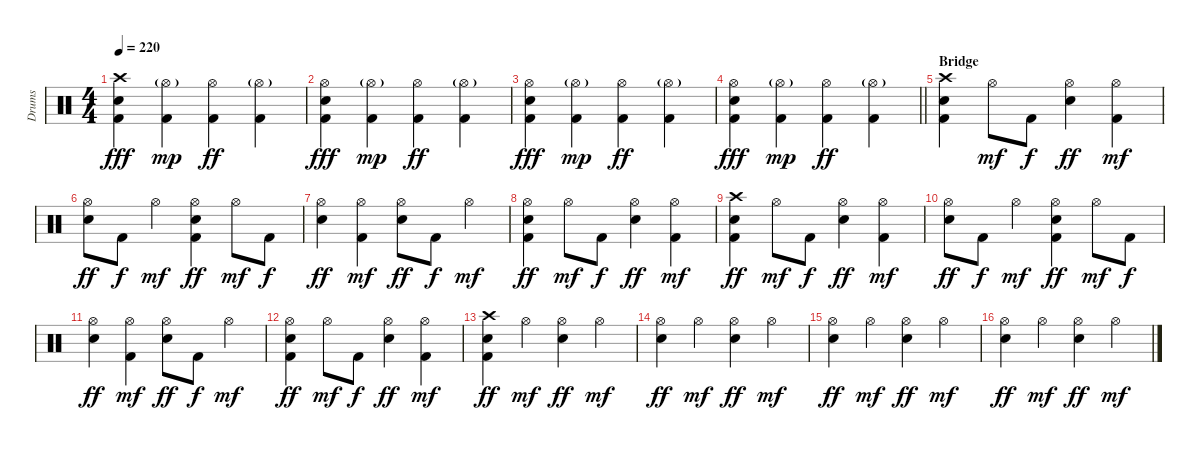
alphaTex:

\track ("Drums" "Drums") {instrument percussion}
\staff {score}
\articulation defaults
\ts (4 4)
\tempo 220
\clef neutral
\ks c
("Crash high (hit)" "Snare (hit) 2" "Kick (hit) 2").4{dy fff} ("Hi-Hat (open)"{g} "Kick (hit) 2").4{dy mp} ("Hi-Hat (open)" "Kick (hit) 2").4{dy ff} ("Hi-Hat (open)"{g} "Kick (hit) 2").4 |
("Hi-Hat (open)" "Snare (hit) 2" "Kick (hit) 2").4{dy fff} ("Hi-Hat (open)"{g} "Kick (hit) 2").4{dy mp} ("Hi-Hat (open)" "Kick (hit) 2").4{dy ff} ("Hi-Hat (open)"{g} "Kick (hit) 2").4 |
("Hi-Hat (open)" "Snare (hit) 2" "Kick (hit) 2").4{dy fff} ("Hi-Hat (open)"{g} "Kick (hit) 2").4{dy mp} ("Hi-Hat (open)" "Kick (hit) 2").4{dy ff} ("Hi-Hat (open)"{g} "Kick (hit) 2").4 |
\barLineRight lightlight
("Hi-Hat (open)" "Snare (hit) 2" "Kick (hit) 2").4{dy fff} ("Hi-Hat (open)"{g} "Kick (hit) 2").4{dy mp} ("Hi-Hat (open)" "Kick (hit) 2").4{dy ff} ("Hi-Hat (open)"{g} "Kick (hit) 2").4 |
\section ("" "Bridge")
("Crash high (hit)" "Snare (hit) 2" "Kick (hit) 2").4 "Hi-Hat (open)".8{dy mf} "Kick (hit) 2".8{dy f} ("Hi-Hat (open)" "Snare (hit) 2").4{dy ff} ("Hi-Hat (open)" "Kick (hit) 2").4{dy mf} |
("Hi-Hat (open)" "Snare (hit) 2").8{dy ff} "Kick (hit) 2".8{dy f} "Hi-Hat (open)".4{dy mf} ("Hi-Hat (open)" "Snare (hit) 2" "Kick (hit) 2").4{dy ff} "Hi-Hat (open)".8{dy mf} "Kick (hit) 2".8{dy f} |
("Hi-Hat (open)" "Snare (hit) 2").4{dy ff} ("Hi-Hat (open)" "Kick (hit) 2").4{dy mf} ("Hi-Hat (open)" "Snare (hit) 2").8{dy ff} "Kick (hit) 2".8{dy f} "Hi-Hat (open)".4{dy mf} |
("Hi-Hat (open)" "Snare (hit) 2" "Kick (hit) 2").4{dy ff} "Hi-Hat (open)".8{dy mf} "Kick (hit) 2".8{dy f} ("Hi-Hat (open)" "Snare (hit) 2").4{dy ff} ("Hi-Hat (open)" "Kick (hit) 2").4{dy mf} |
("Crash high (hit)" "Snare (hit) 2" "Kick (hit) 2").4{dy ff} "Hi-Hat (open)".8{dy mf} "Kick (hit) 2".8{dy f} ("Hi-Hat (open)" "Snare (hit) 2").4{dy ff} ("Hi-Hat (open)" "Kick (hit) 2").4{dy mf} |
("Hi-Hat (open)" "Snare (hit) 2").8{dy ff} "Kick (hit) 2".8{dy f} "Hi-Hat (open)".4{dy mf} ("Hi-Hat (open)" "Snare (hit) 2" "Kick (hit) 2").4{dy ff} "Hi-Hat (open)".8{dy mf} "Kick (hit) 2".8{dy f} |
("Hi-Hat (open)" "Snare (hit) 2").4{dy ff} ("Hi-Hat (open)" "Kick (hit) 2").4{dy mf} ("Hi-Hat (open)" "Snare (hit) 2").8{dy ff} "Kick (hit) 2".8{dy f} "Hi-Hat (open)".4{dy mf} |
("Hi-Hat (open)" "Snare (hit) 2" "Kick (hit) 2").4{dy ff} "Hi-Hat (open)".8{dy mf} "Kick (hit) 2".8{dy f} ("Hi-Hat (open)" "Snare (hit) 2").4{dy ff} ("Hi-Hat (open)" "Kick (hit) 2").4{dy mf} |
("Crash high (hit)" "Snare (hit) 2" "Kick (hit) 2").4{dy ff} "Hi-Hat (open)".4{dy mf} ("Hi-Hat (open)" "Snare (hit) 2").4{dy ff} "Hi-Hat (open)".4{dy mf} |
("Hi-Hat (open)" "Snare (hit) 2").4{dy ff} "Hi-Hat (open)".4{dy mf} ("Hi-Hat (open)" "Snare (hit) 2").4{dy ff} "Hi-Hat (open)".4{dy mf} |
("Hi-Hat (open)" "Snare (hit) 2").4{dy ff} "Hi-Hat (open)".4{dy mf} ("Hi-Hat (open)" "Snare (hit) 2").4{dy ff} "Hi-Hat (open)".4{dy mf} |
("Hi-Hat (open)" "Snare (hit) 2").4{dy ff} "Hi-Hat (open)".4{dy mf} ("Hi-Hat (open)" "Snare (hit) 2").4{dy ff} "Hi-Hat (open)".4{dy mf}
